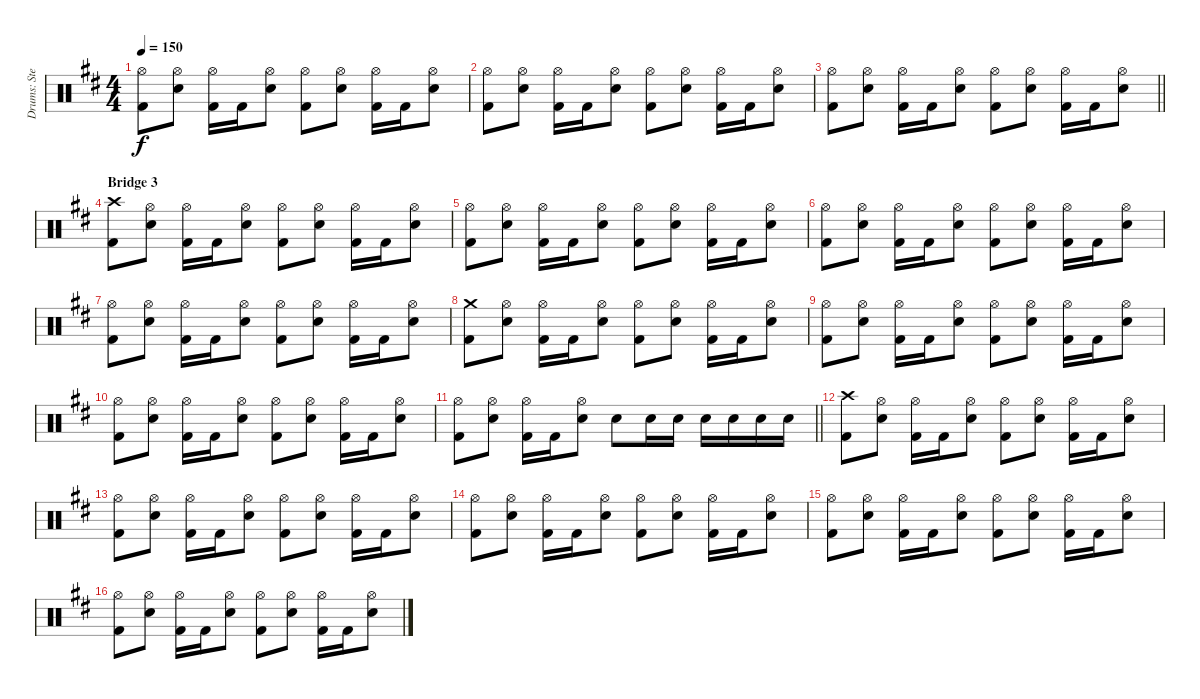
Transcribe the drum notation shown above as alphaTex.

\track ("Drums: Stefan Svantesson" "Drums: Ste") {instrument percussion}
\staff {score}
\articulation defaults
\ts (4 4)
\tempo 150
\clef neutral
\ks d
("Hi-Hat (open)" "Kick (hit) 2").8{dy f} ("Hi-Hat (open)" "Electric Snare (hit)").8 ("Hi-Hat (open)" "Kick (hit) 2").16 "Kick (hit) 2".16 ("Hi-Hat (open)" "Electric Snare (hit)").8 ("Hi-Hat (open)" "Kick (hit) 2").8 ("Hi-Hat (open)" "Electric Snare (hit)").8 ("Hi-Hat (open)" "Kick (hit) 2").16 "Kick (hit) 2".16 ("Hi-Hat (open)" "Electric Snare (hit)").8 |
("Hi-Hat (open)" "Kick (hit) 2").8 ("Hi-Hat (open)" "Electric Snare (hit)").8 ("Hi-Hat (open)" "Kick (hit) 2").16 "Kick (hit) 2".16 ("Hi-Hat (open)" "Electric Snare (hit)").8 ("Hi-Hat (open)" "Kick (hit) 2").8 ("Hi-Hat (open)" "Electric Snare (hit)").8 ("Hi-Hat (open)" "Kick (hit) 2").16 "Kick (hit) 2".16 ("Hi-Hat (open)" "Electric Snare (hit)").8 |
\barLineRight lightlight
("Hi-Hat (open)" "Kick (hit) 2").8 ("Hi-Hat (open)" "Electric Snare (hit)").8 ("Hi-Hat (open)" "Kick (hit) 2").16 "Kick (hit) 2".16 ("Hi-Hat (open)" "Electric Snare (hit)").8 ("Hi-Hat (open)" "Kick (hit) 2").8 ("Hi-Hat (open)" "Electric Snare (hit)").8 ("Hi-Hat (open)" "Kick (hit) 2").16 "Kick (hit) 2".16 ("Hi-Hat (open)" "Electric Snare (hit)").8 |
\section ("" "Bridge 3")
("Crash high (hit)" "Kick (hit) 2").8 ("Hi-Hat (open)" "Electric Snare (hit)").8 ("Hi-Hat (open)" "Kick (hit) 2").16 "Kick (hit) 2".16 ("Hi-Hat (open)" "Electric Snare (hit)").8 ("Hi-Hat (open)" "Kick (hit) 2").8 ("Hi-Hat (open)" "Electric Snare (hit)").8 ("Hi-Hat (open)" "Kick (hit) 2").16 "Kick (hit) 2".16 ("Hi-Hat (open)" "Electric Snare (hit)").8 |
("Hi-Hat (open)" "Kick (hit) 2").8 ("Hi-Hat (open)" "Electric Snare (hit)").8 ("Hi-Hat (open)" "Kick (hit) 2").16 "Kick (hit) 2".16 ("Hi-Hat (open)" "Electric Snare (hit)").8 ("Hi-Hat (open)" "Kick (hit) 2").8 ("Hi-Hat (open)" "Electric Snare (hit)").8 ("Hi-Hat (open)" "Kick (hit) 2").16 "Kick (hit) 2".16 ("Hi-Hat (open)" "Electric Snare (hit)").8 |
("Hi-Hat (open)" "Kick (hit) 2").8 ("Hi-Hat (open)" "Electric Snare (hit)").8 ("Hi-Hat (open)" "Kick (hit) 2").16 "Kick (hit) 2".16 ("Hi-Hat (open)" "Electric Snare (hit)").8 ("Hi-Hat (open)" "Kick (hit) 2").8 ("Hi-Hat (open)" "Electric Snare (hit)").8 ("Hi-Hat (open)" "Kick (hit) 2").16 "Kick (hit) 2".16 ("Hi-Hat (open)" "Electric Snare (hit)").8 |
("Hi-Hat (open)" "Kick (hit) 2").8 ("Hi-Hat (open)" "Electric Snare (hit)").8 ("Hi-Hat (open)" "Kick (hit) 2").16 "Kick (hit) 2".16 ("Hi-Hat (open)" "Electric Snare (hit)").8 ("Hi-Hat (open)" "Kick (hit) 2").8 ("Hi-Hat (open)" "Electric Snare (hit)").8 ("Hi-Hat (open)" "Kick (hit) 2").16 "Kick (hit) 2".16 ("Hi-Hat (open)" "Electric Snare (hit)").8 |
("Crash medium (hit)" "Kick (hit) 2").8 ("Hi-Hat (open)" "Electric Snare (hit)").8 ("Hi-Hat (open)" "Kick (hit) 2").16 "Kick (hit) 2".16 ("Hi-Hat (open)" "Electric Snare (hit)").8 ("Hi-Hat (open)" "Kick (hit) 2").8 ("Hi-Hat (open)" "Electric Snare (hit)").8 ("Hi-Hat (open)" "Kick (hit) 2").16 "Kick (hit) 2".16 ("Hi-Hat (open)" "Electric Snare (hit)").8 |
("Hi-Hat (open)" "Kick (hit) 2").8 ("Hi-Hat (open)" "Electric Snare (hit)").8 ("Hi-Hat (open)" "Kick (hit) 2").16 "Kick (hit) 2".16 ("Hi-Hat (open)" "Electric Snare (hit)").8 ("Hi-Hat (open)" "Kick (hit) 2").8 ("Hi-Hat (open)" "Electric Snare (hit)").8 ("Hi-Hat (open)" "Kick (hit) 2").16 "Kick (hit) 2".16 ("Hi-Hat (open)" "Electric Snare (hit)").8 |
("Hi-Hat (open)" "Kick (hit) 2").8 ("Hi-Hat (open)" "Electric Snare (hit)").8 ("Hi-Hat (open)" "Kick (hit) 2").16 "Kick (hit) 2".16 ("Hi-Hat (open)" "Electric Snare (hit)").8 ("Hi-Hat (open)" "Kick (hit) 2").8 ("Hi-Hat (open)" "Electric Snare (hit)").8 ("Hi-Hat (open)" "Kick (hit) 2").16 "Kick (hit) 2".16 ("Hi-Hat (open)" "Electric Snare (hit)").8 |
\barLineRight lightlight
("Hi-Hat (open)" "Kick (hit) 2").8 ("Hi-Hat (open)" "Electric Snare (hit)").8 ("Hi-Hat (open)" "Kick (hit) 2").16 "Kick (hit) 2".16 ("Hi-Hat (open)" "Electric Snare (hit)").8 "Electric Snare (hit)".8 "Electric Snare (hit)".16 "Electric Snare (hit)".16 "Electric Snare (hit)".16 "Electric Snare (hit)".16 "Electric Snare (hit)".16 "Electric Snare (hit)".16 |
("Crash high (hit)" "Kick (hit) 2").8 ("Hi-Hat (open)" "Electric Snare (hit)").8 ("Hi-Hat (open)" "Kick (hit) 2").16 "Kick (hit) 2".16 ("Hi-Hat (open)" "Electric Snare (hit)").8 ("Hi-Hat (open)" "Kick (hit) 2").8 ("Hi-Hat (open)" "Electric Snare (hit)").8 ("Hi-Hat (open)" "Kick (hit) 2").16 "Kick (hit) 2".16 ("Hi-Hat (open)" "Electric Snare (hit)").8 |
("Hi-Hat (open)" "Kick (hit) 2").8 ("Hi-Hat (open)" "Electric Snare (hit)").8 ("Hi-Hat (open)" "Kick (hit) 2").16 "Kick (hit) 2".16 ("Hi-Hat (open)" "Electric Snare (hit)").8 ("Hi-Hat (open)" "Kick (hit) 2").8 ("Hi-Hat (open)" "Electric Snare (hit)").8 ("Hi-Hat (open)" "Kick (hit) 2").16 "Kick (hit) 2".16 ("Hi-Hat (open)" "Electric Snare (hit)").8 |
("Hi-Hat (open)" "Kick (hit) 2").8 ("Hi-Hat (open)" "Electric Snare (hit)").8 ("Hi-Hat (open)" "Kick (hit) 2").16 "Kick (hit) 2".16 ("Hi-Hat (open)" "Electric Snare (hit)").8 ("Hi-Hat (open)" "Kick (hit) 2").8 ("Hi-Hat (open)" "Electric Snare (hit)").8 ("Hi-Hat (open)" "Kick (hit) 2").16 "Kick (hit) 2".16 ("Hi-Hat (open)" "Electric Snare (hit)").8 |
("Hi-Hat (open)" "Kick (hit) 2").8 ("Hi-Hat (open)" "Electric Snare (hit)").8 ("Hi-Hat (open)" "Kick (hit) 2").16 "Kick (hit) 2".16 ("Hi-Hat (open)" "Electric Snare (hit)").8 ("Hi-Hat (open)" "Kick (hit) 2").8 ("Hi-Hat (open)" "Electric Snare (hit)").8 ("Hi-Hat (open)" "Kick (hit) 2").16 "Kick (hit) 2".16 ("Hi-Hat (open)" "Electric Snare (hit)").8 |
("Hi-Hat (open)" "Kick (hit) 2").8 ("Hi-Hat (open)" "Electric Snare (hit)").8 ("Hi-Hat (open)" "Kick (hit) 2").16 "Kick (hit) 2".16 ("Hi-Hat (open)" "Electric Snare (hit)").8 ("Hi-Hat (open)" "Kick (hit) 2").8 ("Hi-Hat (open)" "Electric Snare (hit)").8 ("Hi-Hat (open)" "Kick (hit) 2").16 "Kick (hit) 2".16 ("Hi-Hat (open)" "Electric Snare (hit)").8
